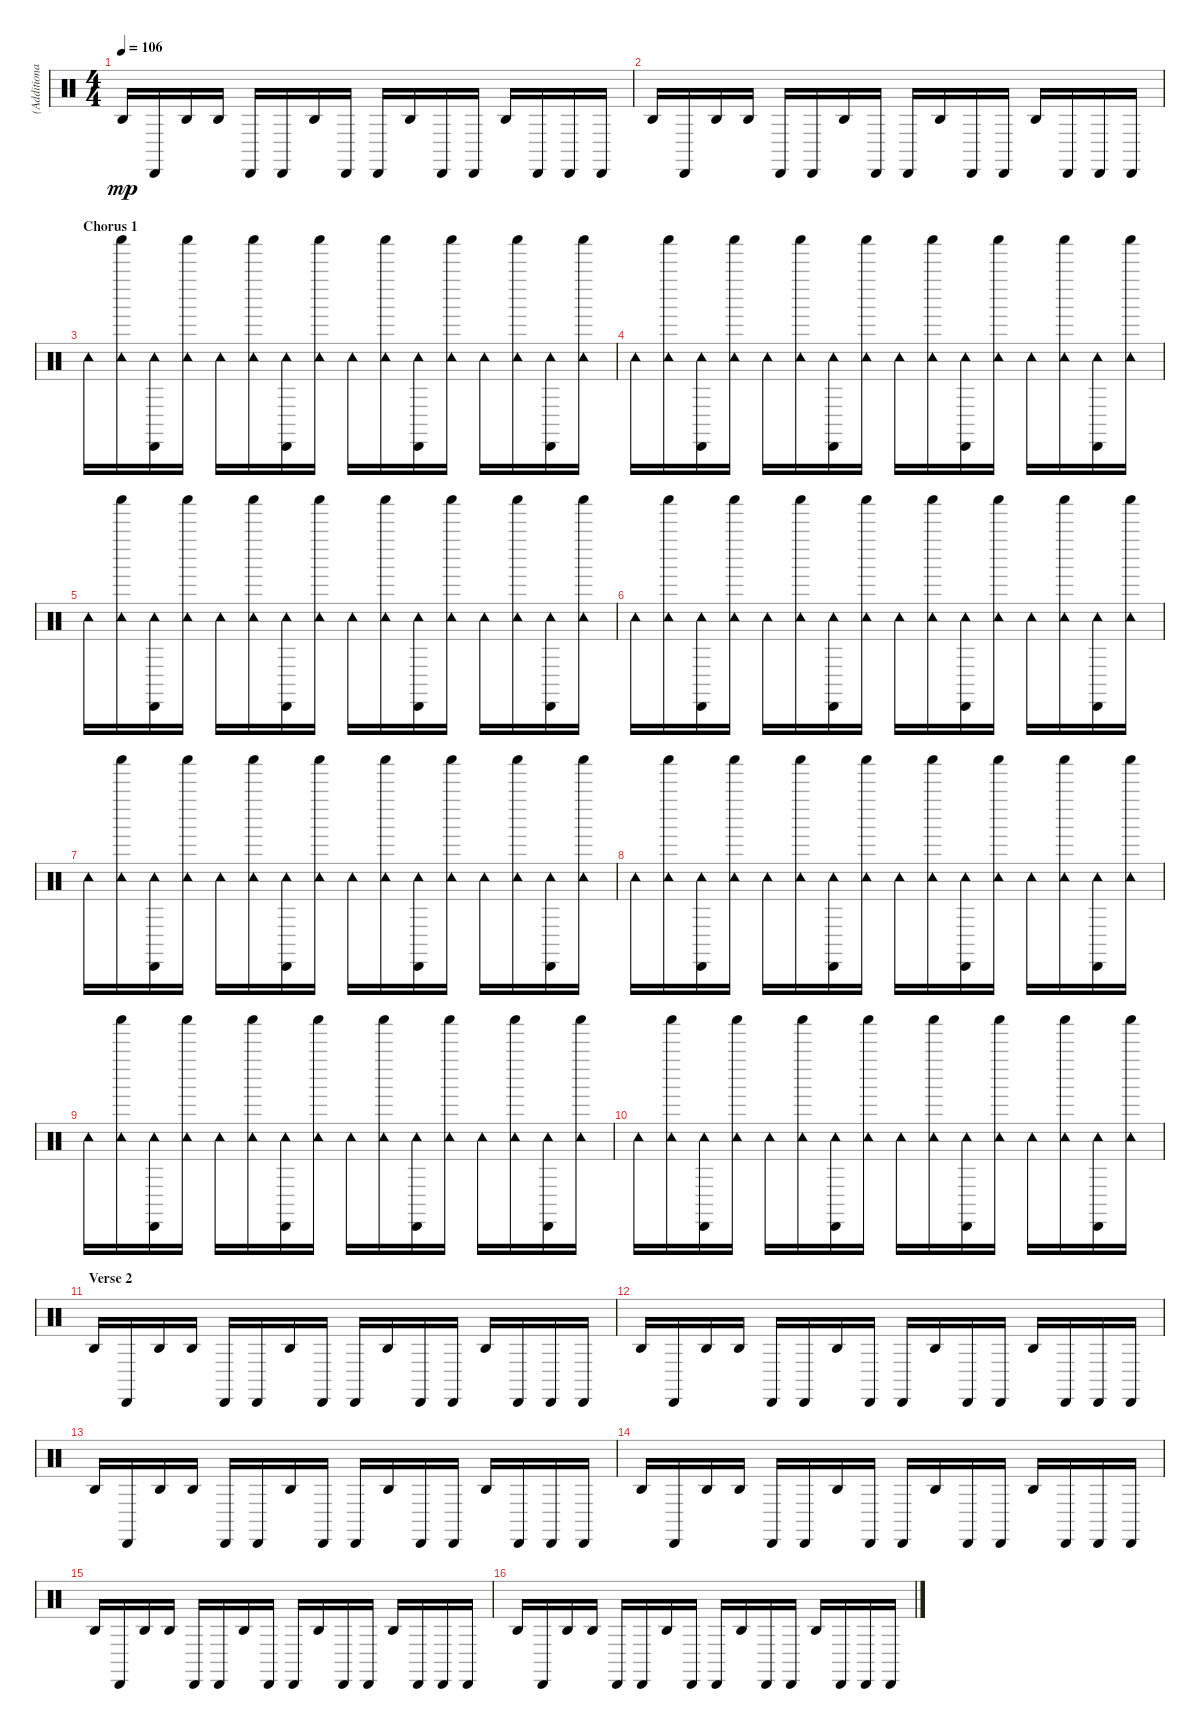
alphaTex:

\track ("(Additional Percussions)" "(Additiona") {instrument percussion}
\staff {score}
\articulation defaults
\ts (4 4)
\tempo 106
\clef neutral
\ks c "Agogo high (hit)".16{dy mp} "Cabasa (hit)".16 "Agogo high (hit)".16 "Agogo high (hit)".16 "Cabasa (hit)".16 "Cabasa (hit)".16 "Agogo high (hit)".16 "Cabasa (hit)".16 "Cabasa (hit)".16 "Agogo high (hit)".16 "Cabasa (hit)".16 "Cabasa (hit)".16 "Agogo high (hit)".16 "Cabasa (hit)".16 "Cabasa (hit)".16 "Cabasa (hit)".16
|
"Agogo high (hit)".16 "Cabasa (hit)".16 "Agogo high (hit)".16 "Agogo high (hit)".16 "Cabasa (hit)".16 "Cabasa (hit)".16 "Agogo high (hit)".16 "Cabasa (hit)".16 "Cabasa (hit)".16 "Agogo high (hit)".16 "Cabasa (hit)".16 "Cabasa (hit)".16 "Agogo high (hit)".16 "Cabasa (hit)".16 "Cabasa (hit)".16 "Cabasa (hit)".16 |
\section ("" "Chorus 1")
"Tambourine (hit)".16 ("Tambourine (hit)" "Shaker (hit)").16 ("Cabasa (hit)" "Tambourine (hit)").16 ("Tambourine (hit)" "Shaker (hit)").16 "Tambourine (hit)".16 ("Tambourine (hit)" "Shaker (hit)").16 ("Cabasa (hit)" "Tambourine (hit)").16 ("Tambourine (hit)" "Shaker (hit)").16 "Tambourine (hit)".16 ("Tambourine (hit)" "Shaker (hit)").16 ("Cabasa (hit)" "Tambourine (hit)").16 ("Tambourine (hit)" "Shaker (hit)").16 "Tambourine (hit)".16 ("Tambourine (hit)" "Shaker (hit)").16 ("Cabasa (hit)" "Tambourine (hit)").16 ("Tambourine (hit)" "Shaker (hit)").16 |
"Tambourine (hit)".16 ("Tambourine (hit)" "Shaker (hit)").16 ("Cabasa (hit)" "Tambourine (hit)").16 ("Tambourine (hit)" "Shaker (hit)").16 "Tambourine (hit)".16 ("Tambourine (hit)" "Shaker (hit)").16 ("Cabasa (hit)" "Tambourine (hit)").16 ("Tambourine (hit)" "Shaker (hit)").16 "Tambourine (hit)".16 ("Tambourine (hit)" "Shaker (hit)").16 ("Cabasa (hit)" "Tambourine (hit)").16 ("Tambourine (hit)" "Shaker (hit)").16 "Tambourine (hit)".16 ("Tambourine (hit)" "Shaker (hit)").16 ("Cabasa (hit)" "Tambourine (hit)").16 ("Tambourine (hit)" "Shaker (hit)").16 |
"Tambourine (hit)".16 ("Tambourine (hit)" "Shaker (hit)").16 ("Cabasa (hit)" "Tambourine (hit)").16 ("Tambourine (hit)" "Shaker (hit)").16 "Tambourine (hit)".16 ("Tambourine (hit)" "Shaker (hit)").16 ("Cabasa (hit)" "Tambourine (hit)").16 ("Tambourine (hit)" "Shaker (hit)").16 "Tambourine (hit)".16 ("Tambourine (hit)" "Shaker (hit)").16 ("Cabasa (hit)" "Tambourine (hit)").16 ("Tambourine (hit)" "Shaker (hit)").16 "Tambourine (hit)".16 ("Tambourine (hit)" "Shaker (hit)").16 ("Cabasa (hit)" "Tambourine (hit)").16 ("Tambourine (hit)" "Shaker (hit)").16 |
"Tambourine (hit)".16 ("Tambourine (hit)" "Shaker (hit)").16 ("Cabasa (hit)" "Tambourine (hit)").16 ("Tambourine (hit)" "Shaker (hit)").16 "Tambourine (hit)".16 ("Tambourine (hit)" "Shaker (hit)").16 ("Cabasa (hit)" "Tambourine (hit)").16 ("Tambourine (hit)" "Shaker (hit)").16 "Tambourine (hit)".16 ("Tambourine (hit)" "Shaker (hit)").16 ("Cabasa (hit)" "Tambourine (hit)").16 ("Tambourine (hit)" "Shaker (hit)").16 "Tambourine (hit)".16 ("Tambourine (hit)" "Shaker (hit)").16 ("Cabasa (hit)" "Tambourine (hit)").16 ("Tambourine (hit)" "Shaker (hit)").16 |
"Tambourine (hit)".16 ("Tambourine (hit)" "Shaker (hit)").16 ("Cabasa (hit)" "Tambourine (hit)").16 ("Tambourine (hit)" "Shaker (hit)").16 "Tambourine (hit)".16 ("Tambourine (hit)" "Shaker (hit)").16 ("Cabasa (hit)" "Tambourine (hit)").16 ("Tambourine (hit)" "Shaker (hit)").16 "Tambourine (hit)".16 ("Tambourine (hit)" "Shaker (hit)").16 ("Cabasa (hit)" "Tambourine (hit)").16 ("Tambourine (hit)" "Shaker (hit)").16 "Tambourine (hit)".16 ("Tambourine (hit)" "Shaker (hit)").16 ("Cabasa (hit)" "Tambourine (hit)").16 ("Tambourine (hit)" "Shaker (hit)").16 |
"Tambourine (hit)".16 ("Tambourine (hit)" "Shaker (hit)").16 ("Cabasa (hit)" "Tambourine (hit)").16 ("Tambourine (hit)" "Shaker (hit)").16 "Tambourine (hit)".16 ("Tambourine (hit)" "Shaker (hit)").16 ("Cabasa (hit)" "Tambourine (hit)").16 ("Tambourine (hit)" "Shaker (hit)").16 "Tambourine (hit)".16 ("Tambourine (hit)" "Shaker (hit)").16 ("Cabasa (hit)" "Tambourine (hit)").16 ("Tambourine (hit)" "Shaker (hit)").16 "Tambourine (hit)".16 ("Tambourine (hit)" "Shaker (hit)").16 ("Cabasa (hit)" "Tambourine (hit)").16 ("Tambourine (hit)" "Shaker (hit)").16 |
"Tambourine (hit)".16 ("Tambourine (hit)" "Shaker (hit)").16 ("Cabasa (hit)" "Tambourine (hit)").16 ("Tambourine (hit)" "Shaker (hit)").16 "Tambourine (hit)".16 ("Tambourine (hit)" "Shaker (hit)").16 ("Cabasa (hit)" "Tambourine (hit)").16 ("Tambourine (hit)" "Shaker (hit)").16 "Tambourine (hit)".16 ("Tambourine (hit)" "Shaker (hit)").16 ("Cabasa (hit)" "Tambourine (hit)").16 ("Tambourine (hit)" "Shaker (hit)").16 "Tambourine (hit)".16 ("Tambourine (hit)" "Shaker (hit)").16 ("Cabasa (hit)" "Tambourine (hit)").16 ("Tambourine (hit)" "Shaker (hit)").16 |
"Tambourine (hit)".16 ("Tambourine (hit)" "Shaker (hit)").16 ("Cabasa (hit)" "Tambourine (hit)").16 ("Tambourine (hit)" "Shaker (hit)").16 "Tambourine (hit)".16 ("Tambourine (hit)" "Shaker (hit)").16 ("Cabasa (hit)" "Tambourine (hit)").16 ("Tambourine (hit)" "Shaker (hit)").16 "Tambourine (hit)".16 ("Tambourine (hit)" "Shaker (hit)").16 ("Cabasa (hit)" "Tambourine (hit)").16 ("Tambourine (hit)" "Shaker (hit)").16 "Tambourine (hit)".16 ("Tambourine (hit)" "Shaker (hit)").16 ("Cabasa (hit)" "Tambourine (hit)").16 ("Tambourine (hit)" "Shaker (hit)").16 |
\section ("" "Verse 2")
"Agogo high (hit)".16 "Cabasa (hit)".16 "Agogo high (hit)".16 "Agogo high (hit)".16 "Cabasa (hit)".16 "Cabasa (hit)".16 "Agogo high (hit)".16 "Cabasa (hit)".16 "Cabasa (hit)".16 "Agogo high (hit)".16 "Cabasa (hit)".16 "Cabasa (hit)".16 "Agogo high (hit)".16 "Cabasa (hit)".16 "Cabasa (hit)".16 "Cabasa (hit)".16 |
"Agogo high (hit)".16 "Cabasa (hit)".16 "Agogo high (hit)".16 "Agogo high (hit)".16 "Cabasa (hit)".16 "Cabasa (hit)".16 "Agogo high (hit)".16 "Cabasa (hit)".16 "Cabasa (hit)".16 "Agogo high (hit)".16 "Cabasa (hit)".16 "Cabasa (hit)".16 "Agogo high (hit)".16 "Cabasa (hit)".16 "Cabasa (hit)".16 "Cabasa (hit)".16 |
"Agogo high (hit)".16 "Cabasa (hit)".16 "Agogo high (hit)".16 "Agogo high (hit)".16 "Cabasa (hit)".16 "Cabasa (hit)".16 "Agogo high (hit)".16 "Cabasa (hit)".16 "Cabasa (hit)".16 "Agogo high (hit)".16 "Cabasa (hit)".16 "Cabasa (hit)".16 "Agogo high (hit)".16 "Cabasa (hit)".16 "Cabasa (hit)".16 "Cabasa (hit)".16 |
"Agogo high (hit)".16 "Cabasa (hit)".16 "Agogo high (hit)".16 "Agogo high (hit)".16 "Cabasa (hit)".16 "Cabasa (hit)".16 "Agogo high (hit)".16 "Cabasa (hit)".16 "Cabasa (hit)".16 "Agogo high (hit)".16 "Cabasa (hit)".16 "Cabasa (hit)".16 "Agogo high (hit)".16 "Cabasa (hit)".16 "Cabasa (hit)".16 "Cabasa (hit)".16 |
"Agogo high (hit)".16 "Cabasa (hit)".16 "Agogo high (hit)".16 "Agogo high (hit)".16 "Cabasa (hit)".16 "Cabasa (hit)".16 "Agogo high (hit)".16 "Cabasa (hit)".16 "Cabasa (hit)".16 "Agogo high (hit)".16 "Cabasa (hit)".16 "Cabasa (hit)".16 "Agogo high (hit)".16 "Cabasa (hit)".16 "Cabasa (hit)".16 "Cabasa (hit)".16 |
"Agogo high (hit)".16 "Cabasa (hit)".16 "Agogo high (hit)".16 "Agogo high (hit)".16 "Cabasa (hit)".16 "Cabasa (hit)".16 "Agogo high (hit)".16 "Cabasa (hit)".16 "Cabasa (hit)".16 "Agogo high (hit)".16 "Cabasa (hit)".16 "Cabasa (hit)".16 "Agogo high (hit)".16 "Cabasa (hit)".16 "Cabasa (hit)".16 "Cabasa (hit)".16
